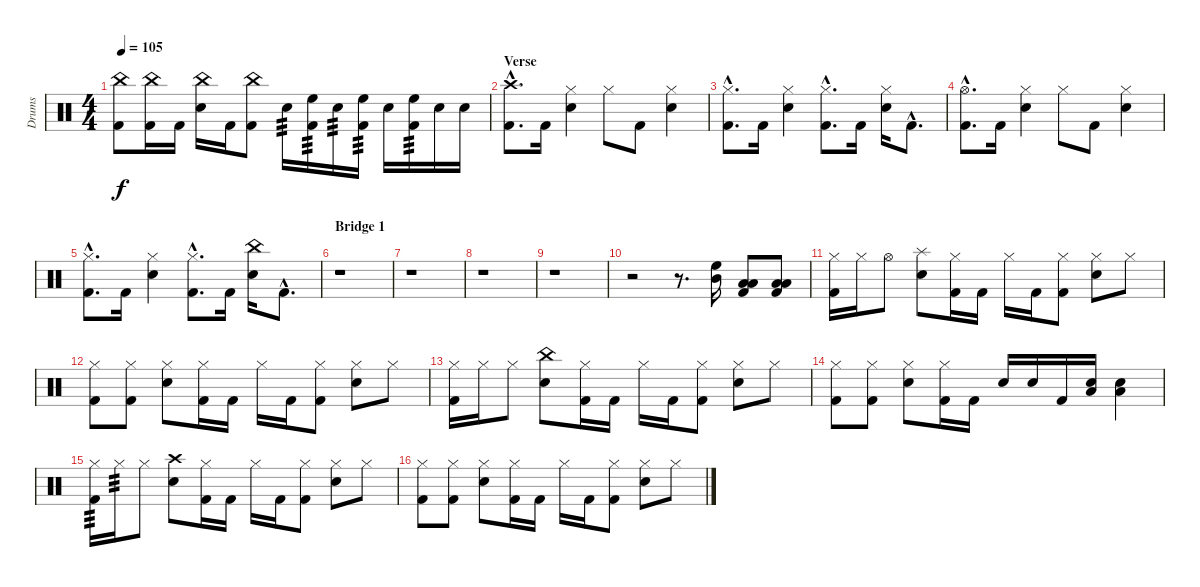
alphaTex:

\track ("Drums" "Drums") {instrument percussion}
\staff {score}
\articulation defaults
\ts (4 4)
\tempo 105
\clef neutral
\ks c
("China (hit)" "Kick (hit) 2").8{dy f} ("China (hit)" "Kick (hit) 2").16 "Kick (hit) 2".16 ("China (hit)" "Snare (hit) 2").16 "Kick (hit) 2".16 ("China (hit)" "Kick (hit) 2").8 "Snare (hit) 2".16{tp 3} ("High Floor Tom (hit)" "Kick (hit) 2").16{tp 3} "Snare (hit) 2".16{tp 3} ("High Floor Tom (hit)" "Kick (hit) 2").16{tp 3} "Snare (hit) 2".16 ("High Floor Tom (hit)" "Kick (hit) 2").16{tp 3} "Snare (hit) 2".16 "Snare (hit) 2".16 |
\section ("" "Verse")
("Crash high (hit)"{hac} "Kick (hit) 2"{hac}).8{d} "Kick (hit) 2".16 ("Hi-Hat (closed)" "Snare (hit) 2").4 "Hi-Hat (closed)".8 "Kick (hit) 2".8 ("Hi-Hat (closed)" "Snare (hit) 2").4 |
("Hi-Hat (closed)"{hac} "Kick (hit) 2"{hac}).8{d} "Kick (hit) 2".16 ("Hi-Hat (closed)" "Snare (hit) 2").4 ("Hi-Hat (closed)"{hac} "Kick (hit) 2"{hac}).8{d} "Kick (hit) 2".16 ("Hi-Hat (closed)" "Snare (hit) 2").16 "Kick (hit) 2"{hac}.8{d} |
("Hi-Hat (open)"{hac} "Kick (hit) 2"{hac}).8{d} "Kick (hit) 2".16 ("Hi-Hat (closed)" "Snare (hit) 2").4 "Hi-Hat (closed)".8 "Kick (hit) 2".8 ("Hi-Hat (closed)" "Snare (hit) 2").4 |
("Hi-Hat (closed)"{hac} "Kick (hit) 2"{hac}).8{d} "Kick (hit) 2".16 ("Hi-Hat (closed)" "Snare (hit) 2").4 ("Hi-Hat (closed)"{hac} "Kick (hit) 2"{hac}).8{d} "Kick (hit) 2".16 ("China (hit)" "Snare (hit) 2").16 "Kick (hit) 2"{hac}.8{d} |
\section ("" "Bridge 1")
r.1 |
r.1 |
r.1 |
r.1 |
r.2 r.8{d} ("High Floor Tom (hit)" "Mid Tom (hit)").16 ("Low Tom (hit)" "Low Floor Tom (hit)" "Kick (hit) 2").8 ("Low Tom (hit)" "Low Floor Tom (hit)" "Kick (hit) 2").8 |
("Hi-Hat (closed)" "Kick (hit) 2").16 "Hi-Hat (closed)".16 "Hi-Hat (open)".8 ("Splash (hit)" "Snare (hit) 2").8 ("Hi-Hat (closed)" "Kick (hit) 2").16 "Kick (hit) 2".16 "Hi-Hat (closed)".16 "Kick (hit) 2".16 ("Hi-Hat (closed)" "Kick (hit) 2").8 ("Hi-Hat (closed)" "Snare (hit) 2").8 "Hi-Hat (closed)".8 |
("Hi-Hat (closed)" "Kick (hit) 2").8 ("Hi-Hat (closed)" "Kick (hit) 2").8 ("Hi-Hat (closed)" "Snare (hit) 2").8 ("Hi-Hat (closed)" "Kick (hit) 2").16 "Kick (hit) 2".16 "Hi-Hat (closed)".16 "Kick (hit) 2".16 ("Hi-Hat (closed)" "Kick (hit) 2").8 ("Hi-Hat (closed)" "Snare (hit) 2").8 "Hi-Hat (closed)".8 |
("Hi-Hat (closed)" "Kick (hit) 2").16 "Hi-Hat (closed)".16 "Hi-Hat (closed)".8 ("China (hit)" "Snare (hit) 2").8 ("Hi-Hat (closed)" "Kick (hit) 2").16 "Kick (hit) 2".16 "Hi-Hat (closed)".16 "Kick (hit) 2".16 ("Hi-Hat (closed)" "Kick (hit) 2").8 ("Hi-Hat (closed)" "Snare (hit) 2").8 "Hi-Hat (closed)".8 |
("Hi-Hat (closed)" "Kick (hit) 2").8 ("Hi-Hat (closed)" "Kick (hit) 2").8 ("Hi-Hat (closed)" "Snare (hit) 2").8 ("Hi-Hat (closed)" "Kick (hit) 2").16 "Kick (hit) 2".16 "Snare (hit) 2".16 "Snare (hit) 2".16 "Kick (hit) 2".16 ("Snare (hit) 2" "Low Tom (hit)").16 ("Snare (hit) 2" "Low Tom (hit)").4 |
("Hi-Hat (closed)" "Kick (hit) 2").16{tp 3} "Hi-Hat (closed)".16{tp 3} "Hi-Hat (closed)".8 ("Crash high (hit)" "Snare (hit) 2").8 ("Hi-Hat (closed)" "Kick (hit) 2").16 "Kick (hit) 2".16 "Hi-Hat (closed)".16 "Kick (hit) 2".16 ("Hi-Hat (closed)" "Kick (hit) 2").8 ("Hi-Hat (closed)" "Snare (hit) 2").8 "Hi-Hat (closed)".8 |
("Hi-Hat (closed)" "Kick (hit) 2").8 ("Hi-Hat (closed)" "Kick (hit) 2").8 ("Hi-Hat (closed)" "Snare (hit) 2").8 ("Hi-Hat (closed)" "Kick (hit) 2").16 "Kick (hit) 2".16 "Hi-Hat (closed)".16 "Kick (hit) 2".16 ("Hi-Hat (closed)" "Kick (hit) 2").8 ("Hi-Hat (closed)" "Snare (hit) 2").8 "Hi-Hat (closed)".8
